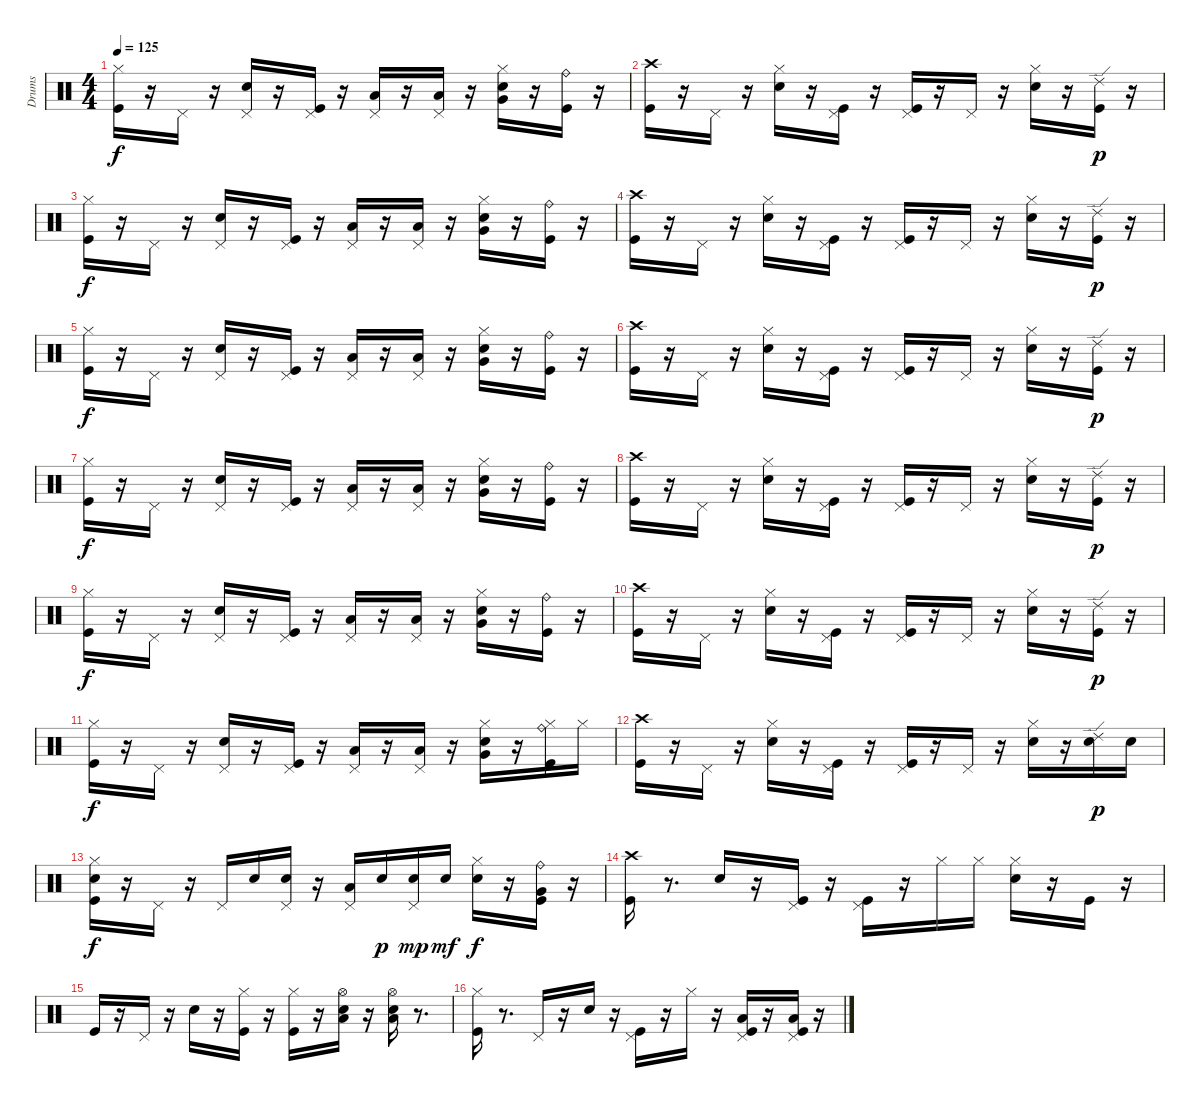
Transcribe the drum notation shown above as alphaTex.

\track ("Drums" "Drums") {instrument percussion}
\staff {score}
\articulation defaults
\ts (4 4)
\tempo 125
\clef neutral
\ks c
("Hi-Hat (closed)" "Kick (hit)").16{dy f} r.16 "Pedal Hi-Hat (hit)".16 r.16 ("Pedal Hi-Hat (hit)" "Electric Snare (hit)").16 r.16 ("Kick (hit)" "Pedal Hi-Hat (hit)").16 r.16 ("Pedal Hi-Hat (hit)" "Low Tom (hit)").16 r.16 ("Low Tom (hit)" "Pedal Hi-Hat (hit)").16 r.16 ("Very Low Tom (hit)" "Hi-Hat (closed)" "Electric Snare (hit)").16 r.16 ("Kick (hit)" "Ride (bell)").16 r.16 |
("Crash high (hit)" "Kick (hit)").16 r.16 "Pedal Hi-Hat (hit)".16 r.16 ("Hi-Hat (closed)" "Electric Snare (hit)").16 r.16 ("Pedal Hi-Hat (hit)" "Kick (hit)").16 r.16 ("Pedal Hi-Hat (hit)" "Kick (hit)").16 r.16 "Pedal Hi-Hat (hit)".16 r.16 ("Hi-Hat (closed)" "Electric Snare (hit)").16 r.16 ("Kick (hit)" "Ride (edge) 2").16{dy p} r.16 |
("Hi-Hat (closed)" "Kick (hit)").16{dy f} r.16 "Pedal Hi-Hat (hit)".16 r.16 ("Pedal Hi-Hat (hit)" "Electric Snare (hit)").16 r.16 ("Kick (hit)" "Pedal Hi-Hat (hit)").16 r.16 ("Pedal Hi-Hat (hit)" "Low Tom (hit)").16 r.16 ("Low Tom (hit)" "Pedal Hi-Hat (hit)").16 r.16 ("Very Low Tom (hit)" "Hi-Hat (closed)" "Electric Snare (hit)").16 r.16 ("Kick (hit)" "Ride (bell)").16 r.16 |
("Crash high (hit)" "Kick (hit)").16 r.16 "Pedal Hi-Hat (hit)".16 r.16 ("Hi-Hat (closed)" "Electric Snare (hit)").16 r.16 ("Pedal Hi-Hat (hit)" "Kick (hit)").16 r.16 ("Pedal Hi-Hat (hit)" "Kick (hit)").16 r.16 "Pedal Hi-Hat (hit)".16 r.16 ("Hi-Hat (closed)" "Electric Snare (hit)").16 r.16 ("Kick (hit)" "Ride (edge) 2").16{dy p} r.16 |
("Hi-Hat (closed)" "Kick (hit)").16{dy f} r.16 "Pedal Hi-Hat (hit)".16 r.16 ("Pedal Hi-Hat (hit)" "Electric Snare (hit)").16 r.16 ("Kick (hit)" "Pedal Hi-Hat (hit)").16 r.16 ("Pedal Hi-Hat (hit)" "Low Tom (hit)").16 r.16 ("Low Tom (hit)" "Pedal Hi-Hat (hit)").16 r.16 ("Very Low Tom (hit)" "Hi-Hat (closed)" "Electric Snare (hit)").16 r.16 ("Kick (hit)" "Ride (bell)").16 r.16 |
("Crash high (hit)" "Kick (hit)").16 r.16 "Pedal Hi-Hat (hit)".16 r.16 ("Hi-Hat (closed)" "Electric Snare (hit)").16 r.16 ("Pedal Hi-Hat (hit)" "Kick (hit)").16 r.16 ("Pedal Hi-Hat (hit)" "Kick (hit)").16 r.16 "Pedal Hi-Hat (hit)".16 r.16 ("Hi-Hat (closed)" "Electric Snare (hit)").16 r.16 ("Kick (hit)" "Ride (edge) 2").16{dy p} r.16 |
("Hi-Hat (closed)" "Kick (hit)").16{dy f} r.16 "Pedal Hi-Hat (hit)".16 r.16 ("Pedal Hi-Hat (hit)" "Electric Snare (hit)").16 r.16 ("Kick (hit)" "Pedal Hi-Hat (hit)").16 r.16 ("Pedal Hi-Hat (hit)" "Low Tom (hit)").16 r.16 ("Low Tom (hit)" "Pedal Hi-Hat (hit)").16 r.16 ("Very Low Tom (hit)" "Hi-Hat (closed)" "Electric Snare (hit)").16 r.16 ("Kick (hit)" "Ride (bell)").16 r.16 |
("Crash high (hit)" "Kick (hit)").16 r.16 "Pedal Hi-Hat (hit)".16 r.16 ("Hi-Hat (closed)" "Electric Snare (hit)").16 r.16 ("Pedal Hi-Hat (hit)" "Kick (hit)").16 r.16 ("Pedal Hi-Hat (hit)" "Kick (hit)").16 r.16 "Pedal Hi-Hat (hit)".16 r.16 ("Hi-Hat (closed)" "Electric Snare (hit)").16 r.16 ("Kick (hit)" "Ride (edge) 2").16{dy p} r.16 |
("Hi-Hat (closed)" "Kick (hit)").16{dy f} r.16 "Pedal Hi-Hat (hit)".16 r.16 ("Pedal Hi-Hat (hit)" "Electric Snare (hit)").16 r.16 ("Kick (hit)" "Pedal Hi-Hat (hit)").16 r.16 ("Pedal Hi-Hat (hit)" "Low Tom (hit)").16 r.16 ("Low Tom (hit)" "Pedal Hi-Hat (hit)").16 r.16 ("Very Low Tom (hit)" "Hi-Hat (closed)" "Electric Snare (hit)").16 r.16 ("Kick (hit)" "Ride (bell)").16 r.16 |
("Crash high (hit)" "Kick (hit)").16 r.16 "Pedal Hi-Hat (hit)".16 r.16 ("Hi-Hat (closed)" "Electric Snare (hit)").16 r.16 ("Pedal Hi-Hat (hit)" "Kick (hit)").16 r.16 ("Pedal Hi-Hat (hit)" "Kick (hit)").16 r.16 "Pedal Hi-Hat (hit)".16 r.16 ("Hi-Hat (closed)" "Electric Snare (hit)").16 r.16 ("Kick (hit)" "Ride (edge) 2").16{dy p} r.16 |
("Hi-Hat (closed)" "Kick (hit)").16{dy f} r.16 "Pedal Hi-Hat (hit)".16 r.16 ("Pedal Hi-Hat (hit)" "Electric Snare (hit)").16 r.16 ("Kick (hit)" "Pedal Hi-Hat (hit)").16 r.16 ("Pedal Hi-Hat (hit)" "Low Tom (hit)").16 r.16 ("Low Tom (hit)" "Pedal Hi-Hat (hit)").16 r.16 ("Very Low Tom (hit)" "Hi-Hat (closed)" "Electric Snare (hit)").16 r.16 ("Hi-Hat (closed)" "Kick (hit)" "Ride (bell)").16 "Hi-Hat (closed)".16 |
("Crash high (hit)" "Kick (hit)").16 r.16 "Pedal Hi-Hat (hit)".16 r.16 ("Hi-Hat (closed)" "Electric Snare (hit)").16 r.16 ("Pedal Hi-Hat (hit)" "Kick (hit)").16 r.16 ("Pedal Hi-Hat (hit)" "Kick (hit)").16 r.16 "Pedal Hi-Hat (hit)".16 r.16 ("Hi-Hat (closed)" "Electric Snare (hit)").16 r.16 ("Electric Snare (hit)" "Ride (edge) 2").16{dy p} "Electric Snare (hit)".16 |
("Electric Snare (hit)" "Hi-Hat (closed)" "Kick (hit)").16{dy f} r.16 "Pedal Hi-Hat (hit)".16 r.16 "Pedal Hi-Hat (hit)".16 "Electric Snare (hit)".16 ("Electric Snare (hit)" "Pedal Hi-Hat (hit)").16 r.16 ("Pedal Hi-Hat (hit)" "Low Tom (hit)").16 "Electric Snare (hit)".16{dy p} ("Electric Snare (hit)" "Pedal Hi-Hat (hit)").16{dy mp} "Electric Snare (hit)".16{dy mf} ("Hi-Hat (closed)" "Electric Snare (hit)").16{dy f} r.16 ("Very Low Tom (hit)" "Kick (hit)" "Ride (bell)").16 r.16 |
("Crash high (hit)" "Kick (hit)").16 r.8{d} "Electric Snare (hit)".16 r.16 ("Pedal Hi-Hat (hit)" "Kick (hit)").16 r.16 ("Pedal Hi-Hat (hit)" "Kick (hit)").16 r.16 "Hi-Hat (closed)".16 "Hi-Hat (closed)".16 ("Electric Snare (hit)" "Hi-Hat (closed)").16 r.16 "Kick (hit)".16 r.16 |
"Kick (hit)".16 r.16 "Pedal Hi-Hat (hit)".16 r.16 "Electric Snare (hit)".16 r.16 ("Kick (hit)" "Hi-Hat (closed)").16 r.16 ("Kick (hit)" "Hi-Hat (closed)").16 r.16 ("Hi-Hat (open)" "Low Tom (hit)" "Electric Snare (hit)").16 r.16 ("Hi-Hat (open)" "Low Tom (hit)" "Electric Snare (hit)").16 r.8{d} |
("Hi-Hat (closed)" "Kick (hit)").16 r.8{d} "Pedal Hi-Hat (hit)".16 r.16 "Electric Snare (hit)".16 r.16 ("Pedal Hi-Hat (hit)" "Kick (hit)").16 r.16 "Hi-Hat (closed)".16 r.16 ("Pedal Hi-Hat (hit)" "Kick (hit)" "Low Tom (hit)").16 r.16 ("Kick (hit)" "Pedal Hi-Hat (hit)" "Low Tom (hit)").16 r.16
